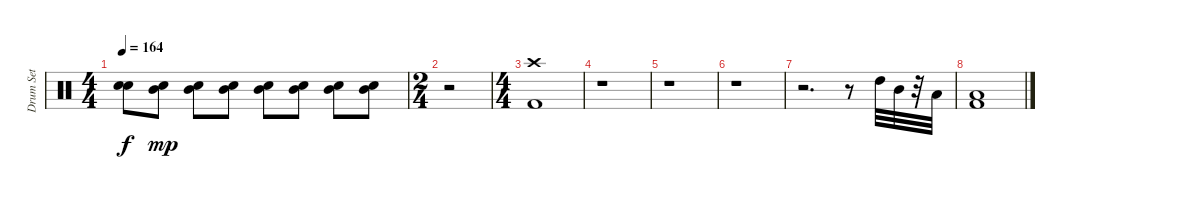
\track ("Drum Set" "Drum Set") {instrument percussion}
\staff {score}
\articulation defaults
\ts (4 4)
\tempo 164
\clef neutral
\ks c
("Snare (hit)"{t} "Snare (hit)"{t}).8{dy f} ("Snare (hit) 2" "Mid Tom (hit)").8{dy mp} ("Snare (hit) 2" "Mid Tom (hit)").8 ("Snare (hit) 2" "Mid Tom (hit)").8 ("Snare (hit) 2" "Mid Tom (hit)").8 ("Snare (hit) 2" "Mid Tom (hit)").8 ("Snare (hit) 2" "Mid Tom (hit)").8 ("Snare (hit) 2" "Mid Tom (hit)").8 |
\ts (2 4)
r.2 |
\ts (4 4)
("Kick (hit) 2" "Crash high (hit)").1 |
r.1 |
r.1 |
r.1 |
r.2{d} r.8 "High Tom (hit)".32 "Mid Tom (hit)".32 r.32 "Low Tom (hit)".32 |
("Kick (hit) 2" "Low Tom (hit)").1
